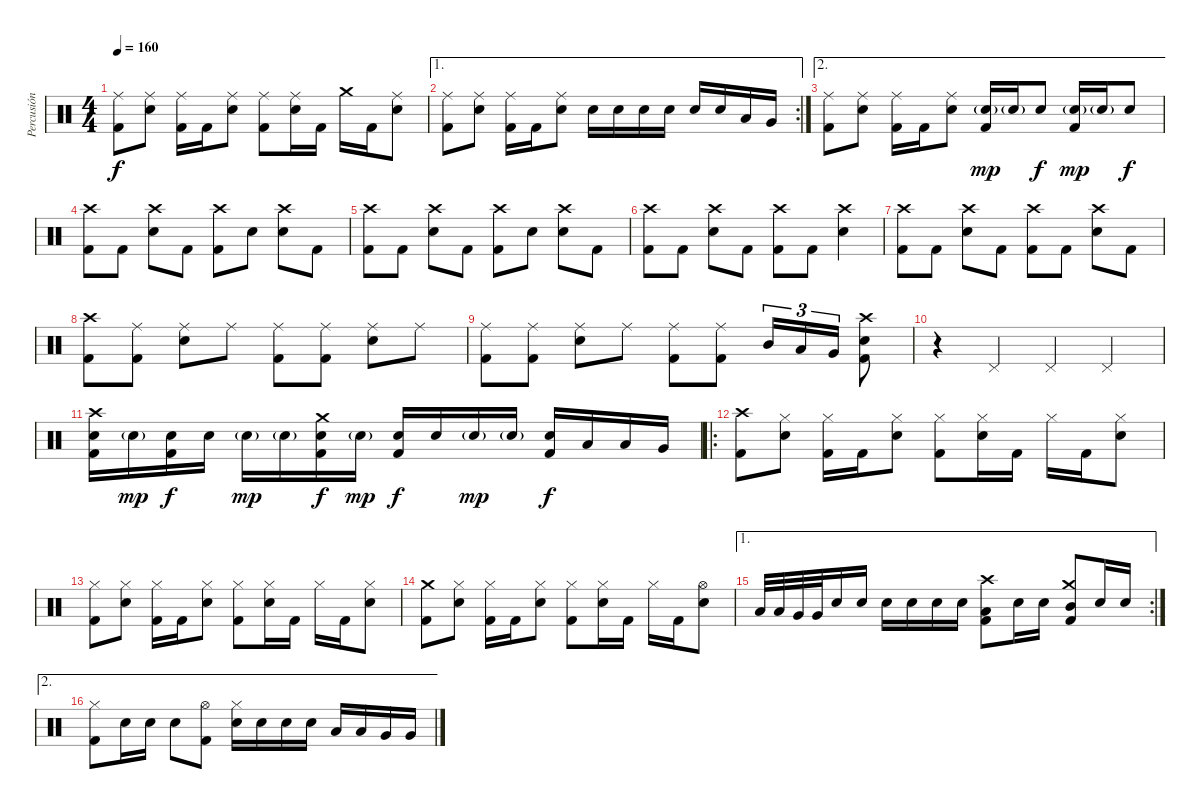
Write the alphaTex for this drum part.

\track ("Percusión" "Percusión") {instrument percussion}
\staff {score}
\articulation defaults
\ts (4 4)
\tempo 160
\clef neutral
\ks c
("Ride (middle)" "Kick (hit) 2").8{dy f} ("Ride (middle)" "Electric Snare (hit)").8 ("Ride (middle)" "Kick (hit) 2").16 "Kick (hit) 2".16 ("Ride (middle)" "Electric Snare (hit)").8 ("Ride (middle)" "Kick (hit) 2").8 ("Ride (middle)" "Electric Snare (hit)").16 "Kick (hit) 2".16 "Crash medium (hit)".16 "Kick (hit) 2".16 ("Ride (middle)" "Electric Snare (hit)").8 |
\ae 1
\rc 2
("Ride (middle)" "Kick (hit) 2").8 ("Ride (middle)" "Electric Snare (hit)").8 ("Ride (middle)" "Kick (hit) 2").16 "Kick (hit) 2".16 ("Ride (middle)" "Electric Snare (hit)").8 "Electric Snare (hit)".16 "Electric Snare (hit)".16 "Electric Snare (hit)".16 "Electric Snare (hit)".16 "Electric Snare (hit)".16 "Electric Snare (hit)".16 "Low Tom (hit)".16 "Very Low Tom (hit)".16 |
\ae 2
("Ride (middle)" "Kick (hit) 2").8 ("Ride (middle)" "Electric Snare (hit)").8 ("Ride (middle)" "Kick (hit) 2").16 "Kick (hit) 2".16 ("Ride (middle)" "Electric Snare (hit)").8 ("Electric Snare (hit)"{g} "Kick (hit) 2").16{dy mp} "Electric Snare (hit)"{g}.16 "Electric Snare (hit)".8{dy f} ("Electric Snare (hit)"{g} "Kick (hit) 2").16{dy mp} "Electric Snare (hit)"{g}.16 "Electric Snare (hit)".8{dy f} |
("Crash high (hit)" "Kick (hit) 2").8 "Kick (hit) 2".8 ("Crash high (hit)" "Electric Snare (hit)").8 "Kick (hit) 2".8 ("Crash high (hit)" "Kick (hit) 2").8 "Electric Snare (hit)".8 ("Crash high (hit)" "Electric Snare (hit)").8 "Kick (hit) 2".8 |
("Crash high (hit)" "Kick (hit) 2").8 "Kick (hit) 2".8 ("Crash high (hit)" "Electric Snare (hit)").8 "Kick (hit) 2".8 ("Crash high (hit)" "Kick (hit) 2").8 "Electric Snare (hit)".8 ("Crash high (hit)" "Electric Snare (hit)").8 "Kick (hit) 2".8 |
("Crash high (hit)" "Kick (hit) 2").8 "Kick (hit) 2".8 ("Crash high (hit)" "Electric Snare (hit)").8 "Kick (hit) 2".8 ("Crash high (hit)" "Kick (hit) 2").8 "Kick (hit) 2".8 ("Crash high (hit)" "Electric Snare (hit)").4 |
("Crash high (hit)" "Kick (hit) 2").8 "Kick (hit) 2".8 ("Crash high (hit)" "Electric Snare (hit)").8 "Kick (hit) 2".8 ("Crash high (hit)" "Kick (hit) 2").8 "Kick (hit) 2".8 ("Crash high (hit)" "Electric Snare (hit)").8 "Kick (hit) 2".8 |
("Crash high (hit)" "Kick (hit) 2").8 ("Ride (middle)" "Kick (hit) 2").8 ("Ride (middle)" "Electric Snare (hit)").8 "Ride (middle)".8 ("Ride (middle)" "Kick (hit) 2").8 ("Ride (middle)" "Kick (hit) 2").8 ("Ride (middle)" "Electric Snare (hit)").8 "Ride (middle)".8 |
("Ride (middle)" "Kick (hit) 2").8 ("Ride (middle)" "Kick (hit) 2").8 ("Ride (middle)" "Electric Snare (hit)").8 "Ride (middle)".8 ("Ride (middle)" "Kick (hit) 2").8 ("Ride (middle)" "Kick (hit) 2").8 "Mid Tom (hit)".16{tu (3 2)} "Low Tom (hit)".16{tu (3 2)} "Very Low Tom (hit)".16{tu (3 2)} ("Crash high (hit)" "Electric Snare (hit)" "Kick (hit) 2").8 |
r.4 "Pedal Hi-Hat (hit)".4 "Pedal Hi-Hat (hit)".4 "Pedal Hi-Hat (hit)".4 |
("Crash high (hit)" "Electric Snare (hit)" "Kick (hit) 2").16 "Electric Snare (hit)"{g}.16{dy mp} ("Electric Snare (hit)" "Kick (hit) 2").16{dy f} "Electric Snare (hit)".16 "Electric Snare (hit)"{g}.16{dy mp} "Electric Snare (hit)"{g}.16 ("Crash medium (hit)" "Electric Snare (hit)" "Kick (hit) 2").16{dy f} "Electric Snare (hit)"{g}.16{dy mp} ("Electric Snare (hit)" "Kick (hit) 2").16{dy f} "Electric Snare (hit)".16 "Electric Snare (hit)"{g}.16{dy mp} "Electric Snare (hit)"{g}.16 ("Electric Snare (hit)" "Kick (hit) 2").16{dy f} "Low Tom (hit)".16 "Low Tom (hit)".16 "Very Low Tom (hit)".16 |
\ro
("Crash high (hit)" "Kick (hit) 2").8 ("Hi-Hat (closed)" "Electric Snare (hit)").8 ("Hi-Hat (closed)" "Kick (hit) 2").16 "Kick (hit) 2".16 ("Hi-Hat (closed)" "Electric Snare (hit)").8 ("Hi-Hat (closed)" "Kick (hit) 2").8 ("Hi-Hat (closed)" "Electric Snare (hit)").16 "Kick (hit) 2".16 "Hi-Hat (closed)".16 "Kick (hit) 2".16 ("Hi-Hat (closed)" "Electric Snare (hit)").8 |
("Hi-Hat (closed)" "Kick (hit) 2").8 ("Hi-Hat (closed)" "Electric Snare (hit)").8 ("Hi-Hat (closed)" "Kick (hit) 2").16 "Kick (hit) 2".16 ("Hi-Hat (closed)" "Electric Snare (hit)").8 ("Hi-Hat (closed)" "Kick (hit) 2").8 ("Hi-Hat (closed)" "Electric Snare (hit)").16 "Kick (hit) 2".16 "Hi-Hat (closed)".16 "Kick (hit) 2".16 ("Hi-Hat (closed)" "Electric Snare (hit)").8 |
("Crash medium (hit)" "Kick (hit) 2").8 ("Hi-Hat (closed)" "Electric Snare (hit)").8 ("Hi-Hat (closed)" "Kick (hit) 2").16 "Kick (hit) 2".16 ("Hi-Hat (closed)" "Electric Snare (hit)").8 ("Hi-Hat (closed)" "Kick (hit) 2").8 ("Hi-Hat (closed)" "Electric Snare (hit)").16 "Kick (hit) 2".16 "Hi-Hat (closed)".16 "Kick (hit) 2".16 ("Hi-Hat (open)" "Electric Snare (hit)").8 |
\ae 1
\rc 2 "Low Tom (hit)".32 "Low Tom (hit)".32 "Very Low Tom (hit)".32 "Very Low Tom (hit)".32 "Electric Snare (hit)".16 "Electric Snare (hit)".16 "Electric Snare (hit)".16 "Electric Snare (hit)".16 "Electric Snare (hit)".16 "Electric Snare (hit)".16
("Crash high (hit)" "Low Tom (hit)" "Kick (hit) 2").8 "Electric Snare (hit)".16 "Electric Snare (hit)".16 ("Crash medium (hit)" "Mid Tom (hit)" "Kick (hit) 2").8 "Electric Snare (hit)".16 "Electric Snare (hit)".16 |
\ae 2
("Hi-Hat (closed)" "Kick (hit) 2").8 "Electric Snare (hit)".16 "Electric Snare (hit)".16 "Electric Snare (hit)".8 ("Hi-Hat (open)" "Kick (hit) 2").8 ("Hi-Hat (closed)" "Electric Snare (hit)").16 "Electric Snare (hit)".16 "Electric Snare (hit)".16 "Electric Snare (hit)".16 "Low Tom (hit)".16 "Low Tom (hit)".16 "Very Low Tom (hit)".16 "Very Low Tom (hit)".16
